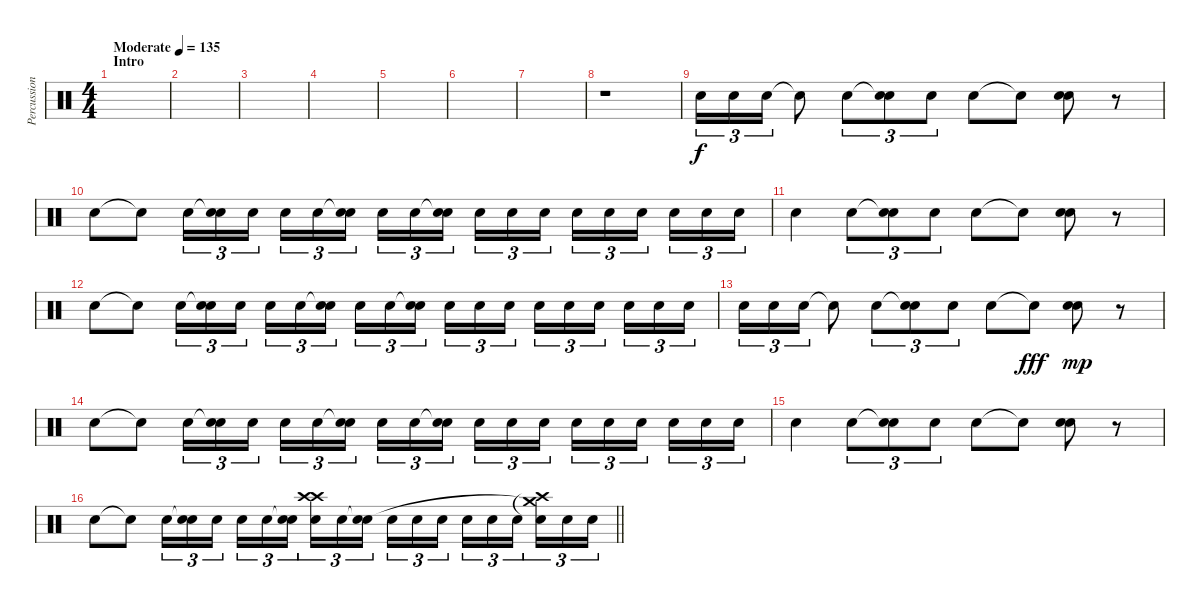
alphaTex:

\track ("Percussion" "Percussion") {instrument percussion}
\staff {score}
\articulation defaults
\ts (4 4)
\section ("" "Intro")
\tempo (135 "Moderate")
\clef neutral
\ks c
|
|
|
|
|
|
|
r.1 |
"Electric Snare (hit)".16{tu (3 2)} "Electric Snare (hit)".16{tu (3 2)} "Electric Snare (hit)".16{tu (3 2)} "Snare (hit)"{t}.8 "Electric Snare (hit)".8{tu (3 2)} ("Snare (hit)"{t} "Electric Snare (hit)").8{tu (3 2)} "Electric Snare (hit)".8{tu (3 2)} "Electric Snare (hit)".8 "Snare (hit)"{t}.8 ("Electric Snare (hit)" "Electric Snare (hit)").8 r.8 |
"Electric Snare (hit)".8 "Snare (hit)"{t}.8 "Electric Snare (hit)".16{tu (3 2)} ("Snare (hit)"{t} "Electric Snare (hit)").16{tu (3 2)} "Electric Snare (hit)".16{tu (3 2) beam splitsecondary} "Electric Snare (hit)".16{tu (3 2)} "Electric Snare (hit)".16{tu (3 2)} ("Snare (hit)"{t} "Electric Snare (hit)").16{tu (3 2)} "Electric Snare (hit)".16{tu (3 2)} "Electric Snare (hit)".16{tu (3 2)} ("Snare (hit)"{t} "Electric Snare (hit)").16{tu (3 2) beam splitsecondary} "Electric Snare (hit)".16{tu (3 2)} "Electric Snare (hit)".16{tu (3 2)} "Electric Snare (hit)".16{tu (3 2)} "Electric Snare (hit)".16{tu (3 2)} "Electric Snare (hit)".16{tu (3 2)} "Electric Snare (hit)".16{tu (3 2) beam splitsecondary} "Electric Snare (hit)".16{tu (3 2)} "Electric Snare (hit)".16{tu (3 2)} "Electric Snare (hit)".16{tu (3 2)} |
"Electric Snare (hit)".4 "Electric Snare (hit)".8{tu (3 2)} ("Snare (hit)"{t} "Electric Snare (hit)").8{tu (3 2)} "Electric Snare (hit)".8{tu (3 2)} "Electric Snare (hit)".8 "Snare (hit)"{t}.8 ("Electric Snare (hit)" "Electric Snare (hit)").8 r.8 |
"Electric Snare (hit)".8 "Snare (hit)"{t}.8 "Electric Snare (hit)".16{tu (3 2)} ("Snare (hit)"{t} "Electric Snare (hit)").16{tu (3 2)} "Electric Snare (hit)".16{tu (3 2) beam splitsecondary} "Electric Snare (hit)".16{tu (3 2)} "Electric Snare (hit)".16{tu (3 2)} ("Snare (hit)"{t} "Electric Snare (hit)").16{tu (3 2)} "Electric Snare (hit)".16{tu (3 2)} "Electric Snare (hit)".16{tu (3 2)} ("Snare (hit)"{t} "Electric Snare (hit)").16{tu (3 2) beam splitsecondary} "Electric Snare (hit)".16{tu (3 2)} "Electric Snare (hit)".16{tu (3 2)} "Electric Snare (hit)".16{tu (3 2)} "Electric Snare (hit)".16{tu (3 2)} "Electric Snare (hit)".16{tu (3 2)} "Electric Snare (hit)".16{tu (3 2) beam splitsecondary} "Electric Snare (hit)".16{tu (3 2)} "Electric Snare (hit)".16{tu (3 2)} "Electric Snare (hit)".16{tu (3 2)} |
"Electric Snare (hit)".16{tu (3 2)} "Electric Snare (hit)".16{tu (3 2)} "Electric Snare (hit)".16{tu (3 2)} "Snare (hit)"{t}.8 "Electric Snare (hit)".8{tu (3 2)} ("Snare (hit)"{t} "Electric Snare (hit)").8{tu (3 2)} "Electric Snare (hit)".8{tu (3 2)} "Electric Snare (hit)".8 "Snare (hit)"{t}.8{dy fff} ("Electric Snare (hit)" "Electric Snare (hit)").8{dy mp} r.8 |
"Electric Snare (hit)".8 "Snare (hit)"{t}.8 "Electric Snare (hit)".16{tu (3 2)} ("Snare (hit)"{t} "Electric Snare (hit)").16{tu (3 2)} "Electric Snare (hit)".16{tu (3 2) beam splitsecondary} "Electric Snare (hit)".16{tu (3 2)} "Electric Snare (hit)".16{tu (3 2)} ("Snare (hit)"{t} "Electric Snare (hit)").16{tu (3 2)} "Electric Snare (hit)".16{tu (3 2)} "Electric Snare (hit)".16{tu (3 2)} ("Snare (hit)"{t} "Electric Snare (hit)").16{tu (3 2) beam splitsecondary} "Electric Snare (hit)".16{tu (3 2)} "Electric Snare (hit)".16{tu (3 2)} "Electric Snare (hit)".16{tu (3 2)} "Electric Snare (hit)".16{tu (3 2)} "Electric Snare (hit)".16{tu (3 2)} "Electric Snare (hit)".16{tu (3 2) beam splitsecondary} "Electric Snare (hit)".16{tu (3 2)} "Electric Snare (hit)".16{tu (3 2)} "Electric Snare (hit)".16{tu (3 2)} |
"Electric Snare (hit)".4 "Electric Snare (hit)".8{tu (3 2)} ("Snare (hit)"{t} "Electric Snare (hit)").8{tu (3 2)} "Electric Snare (hit)".8{tu (3 2)} "Electric Snare (hit)".8 "Snare (hit)"{t}.8 ("Electric Snare (hit)" "Electric Snare (hit)").8 r.8 |
\barLineRight lightlight "Electric Snare (hit)".8 "Snare (hit)"{t}.8 "Electric Snare (hit)".16{tu (3 2)}
("Snare (hit)"{t} "Electric Snare (hit)").16{tu (3 2)} "Electric Snare (hit)".16{tu (3 2) beam splitsecondary} "Electric Snare (hit)".16{tu (3 2)} "Electric Snare (hit)".16{tu (3 2)} ("Snare (hit)"{t} "Electric Snare (hit)").16{tu (3 2)} ("Crash high (hit)" "Crash high (hit)" "Electric Snare (hit)").16{tu (3 2)} "Electric Snare (hit)".16{tu (3 2)} ("Snare (hit)"{t} "Electric Snare (hit)").16{tu (3 2) beam splitsecondary} "Electric Snare (hit)".16{tu (3 2)} "Electric Snare (hit)".16{tu (3 2)} "Electric Snare (hit)".16{tu (3 2)} "Electric Snare (hit)".16{tu (3 2)} "Electric Snare (hit)".16{tu (3 2)} "Electric Snare (hit)".16{tu (3 2) beam splitsecondary} ("Crash high (hit)"{t} "Crash medium (hit)"{t} "Electric Snare (hit)").16{tu (3 2)} "Electric Snare (hit)".16{tu (3 2)} "Electric Snare (hit)".16{tu (3 2)}
